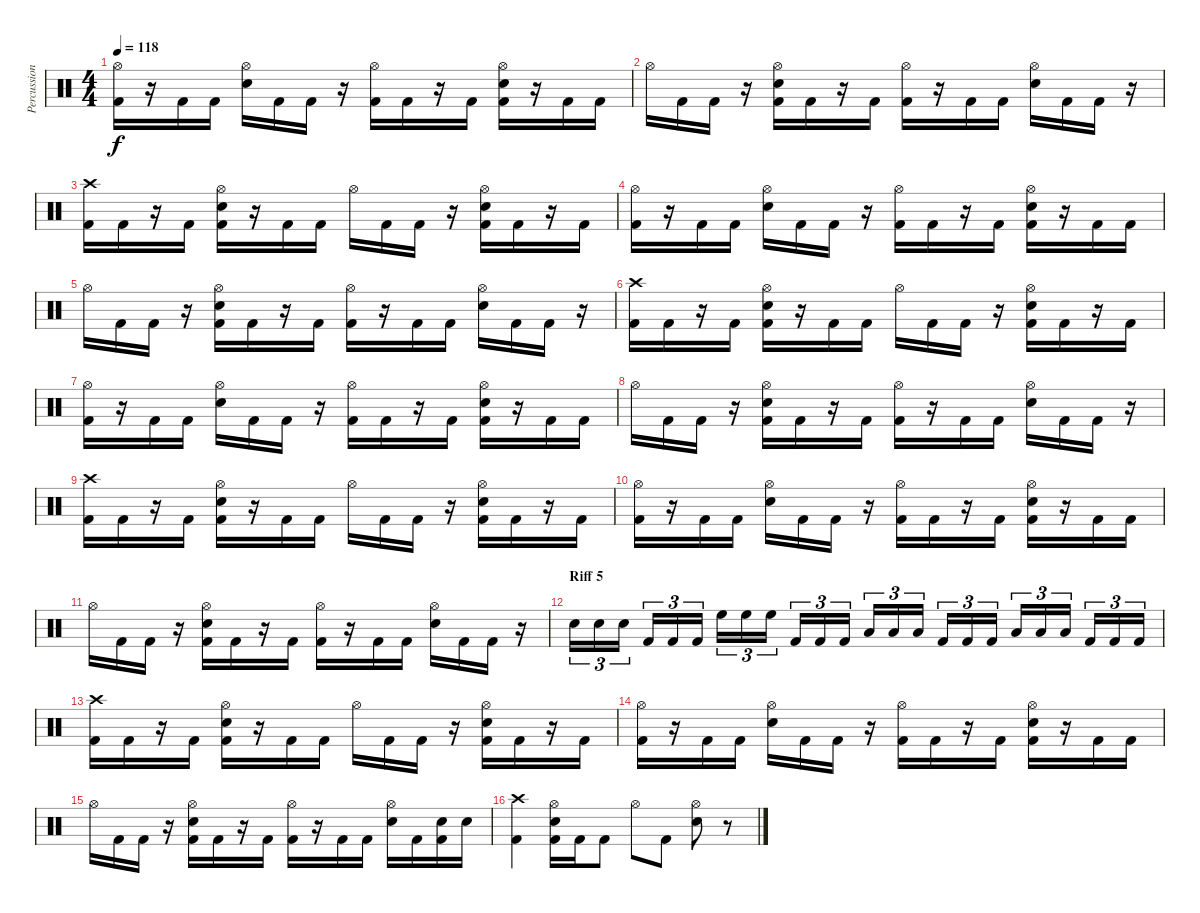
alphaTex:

\track ("Percussion" "Percussion") {instrument percussion}
\staff {score}
\articulation defaults
\ts (4 4)
\tempo 118
\clef neutral
\ks c
("Hi-Hat (open)" "Kick (hit) 2").16{dy f} r.16 "Kick (hit) 2".16 "Kick (hit) 2".16 ("Hi-Hat (open)" "Electric Snare (hit)").16 "Kick (hit) 2".16 "Kick (hit) 2".16 r.16 ("Hi-Hat (open)" "Kick (hit) 2").16 "Kick (hit) 2".16 r.16 "Kick (hit) 2".16 ("Hi-Hat (open)" "Electric Snare (hit)" "Kick (hit) 2").16 r.16 "Kick (hit) 2".16 "Kick (hit) 2".16 |
"Hi-Hat (open)".16 "Kick (hit) 2".16 "Kick (hit) 2".16 r.16 ("Hi-Hat (open)" "Electric Snare (hit)" "Kick (hit) 2").16 "Kick (hit) 2".16 r.16 "Kick (hit) 2".16 ("Hi-Hat (open)" "Kick (hit) 2").16 r.16 "Kick (hit) 2".16 "Kick (hit) 2".16 ("Hi-Hat (open)" "Electric Snare (hit)").16 "Kick (hit) 2".16 "Kick (hit) 2".16 r.16 |
("Crash high (hit)" "Kick (hit) 2").16 "Kick (hit) 2".16 r.16 "Kick (hit) 2".16 ("Hi-Hat (open)" "Electric Snare (hit)" "Kick (hit) 2").16 r.16 "Kick (hit) 2".16 "Kick (hit) 2".16 "Hi-Hat (open)".16 "Kick (hit) 2".16 "Kick (hit) 2".16 r.16 ("Hi-Hat (open)" "Electric Snare (hit)" "Kick (hit) 2").16 "Kick (hit) 2".16 r.16 "Kick (hit) 2".16 |
("Hi-Hat (open)" "Kick (hit) 2").16 r.16 "Kick (hit) 2".16 "Kick (hit) 2".16 ("Hi-Hat (open)" "Electric Snare (hit)").16 "Kick (hit) 2".16 "Kick (hit) 2".16 r.16 ("Hi-Hat (open)" "Kick (hit) 2").16 "Kick (hit) 2".16 r.16 "Kick (hit) 2".16 ("Hi-Hat (open)" "Electric Snare (hit)" "Kick (hit) 2").16 r.16 "Kick (hit) 2".16 "Kick (hit) 2".16 |
"Hi-Hat (open)".16 "Kick (hit) 2".16 "Kick (hit) 2".16 r.16 ("Hi-Hat (open)" "Electric Snare (hit)" "Kick (hit) 2").16 "Kick (hit) 2".16 r.16 "Kick (hit) 2".16 ("Hi-Hat (open)" "Kick (hit) 2").16 r.16 "Kick (hit) 2".16 "Kick (hit) 2".16 ("Hi-Hat (open)" "Electric Snare (hit)").16 "Kick (hit) 2".16 "Kick (hit) 2".16 r.16 |
("Crash high (hit)" "Kick (hit) 2").16 "Kick (hit) 2".16 r.16 "Kick (hit) 2".16 ("Hi-Hat (open)" "Electric Snare (hit)" "Kick (hit) 2").16 r.16 "Kick (hit) 2".16 "Kick (hit) 2".16 "Hi-Hat (open)".16 "Kick (hit) 2".16 "Kick (hit) 2".16 r.16 ("Hi-Hat (open)" "Electric Snare (hit)" "Kick (hit) 2").16 "Kick (hit) 2".16 r.16 "Kick (hit) 2".16 |
("Hi-Hat (open)" "Kick (hit) 2").16 r.16 "Kick (hit) 2".16 "Kick (hit) 2".16 ("Hi-Hat (open)" "Electric Snare (hit)").16 "Kick (hit) 2".16 "Kick (hit) 2".16 r.16 ("Hi-Hat (open)" "Kick (hit) 2").16 "Kick (hit) 2".16 r.16 "Kick (hit) 2".16 ("Hi-Hat (open)" "Electric Snare (hit)" "Kick (hit) 2").16 r.16 "Kick (hit) 2".16 "Kick (hit) 2".16 |
"Hi-Hat (open)".16 "Kick (hit) 2".16 "Kick (hit) 2".16 r.16 ("Hi-Hat (open)" "Electric Snare (hit)" "Kick (hit) 2").16 "Kick (hit) 2".16 r.16 "Kick (hit) 2".16 ("Hi-Hat (open)" "Kick (hit) 2").16 r.16 "Kick (hit) 2".16 "Kick (hit) 2".16 ("Hi-Hat (open)" "Electric Snare (hit)").16 "Kick (hit) 2".16 "Kick (hit) 2".16 r.16 |
("Crash high (hit)" "Kick (hit) 2").16 "Kick (hit) 2".16 r.16 "Kick (hit) 2".16 ("Hi-Hat (open)" "Electric Snare (hit)" "Kick (hit) 2").16 r.16 "Kick (hit) 2".16 "Kick (hit) 2".16 "Hi-Hat (open)".16 "Kick (hit) 2".16 "Kick (hit) 2".16 r.16 ("Hi-Hat (open)" "Electric Snare (hit)" "Kick (hit) 2").16 "Kick (hit) 2".16 r.16 "Kick (hit) 2".16 |
("Hi-Hat (open)" "Kick (hit) 2").16 r.16 "Kick (hit) 2".16 "Kick (hit) 2".16 ("Hi-Hat (open)" "Electric Snare (hit)").16 "Kick (hit) 2".16 "Kick (hit) 2".16 r.16 ("Hi-Hat (open)" "Kick (hit) 2").16 "Kick (hit) 2".16 r.16 "Kick (hit) 2".16 ("Hi-Hat (open)" "Electric Snare (hit)" "Kick (hit) 2").16 r.16 "Kick (hit) 2".16 "Kick (hit) 2".16 |
"Hi-Hat (open)".16 "Kick (hit) 2".16 "Kick (hit) 2".16 r.16 ("Hi-Hat (open)" "Electric Snare (hit)" "Kick (hit) 2").16 "Kick (hit) 2".16 r.16 "Kick (hit) 2".16 ("Hi-Hat (open)" "Kick (hit) 2").16 r.16 "Kick (hit) 2".16 "Kick (hit) 2".16 ("Hi-Hat (open)" "Electric Snare (hit)").16 "Kick (hit) 2".16 "Kick (hit) 2".16 r.16 |
\section ("" "Riff 5")
"Electric Snare (hit)".16{tu (3 2)} "Electric Snare (hit)".16{tu (3 2)} "Electric Snare (hit)".16{tu (3 2)} "Kick (hit) 2".16{tu (3 2)} "Kick (hit) 2".16{tu (3 2)} "Kick (hit) 2".16{tu (3 2)} "High Floor Tom (hit)".16{tu (3 2)} "High Floor Tom (hit)".16{tu (3 2)} "High Floor Tom (hit)".16{tu (3 2)} "Kick (hit) 2".16{tu (3 2)} "Kick (hit) 2".16{tu (3 2)} "Kick (hit) 2".16{tu (3 2)} "Low Tom (hit)".16{tu (3 2)} "Low Tom (hit)".16{tu (3 2)} "Low Tom (hit)".16{tu (3 2)} "Kick (hit) 2".16{tu (3 2)} "Kick (hit) 2".16{tu (3 2)} "Kick (hit) 2".16{tu (3 2)} "Low Floor Tom (hit)".16{tu (3 2)} "Low Floor Tom (hit)".16{tu (3 2)} "Low Floor Tom (hit)".16{tu (3 2)} "Kick (hit) 2".16{tu (3 2)} "Kick (hit) 2".16{tu (3 2)} "Kick (hit) 2".16{tu (3 2)} |
("Crash high (hit)" "Kick (hit) 2").16 "Kick (hit) 2".16 r.16 "Kick (hit) 2".16 ("Hi-Hat (open)" "Electric Snare (hit)" "Kick (hit) 2").16 r.16 "Kick (hit) 2".16 "Kick (hit) 2".16 "Hi-Hat (open)".16 "Kick (hit) 2".16 "Kick (hit) 2".16 r.16 ("Hi-Hat (open)" "Electric Snare (hit)" "Kick (hit) 2").16 "Kick (hit) 2".16 r.16 "Kick (hit) 2".16 |
("Hi-Hat (open)" "Kick (hit) 2").16 r.16 "Kick (hit) 2".16 "Kick (hit) 2".16 ("Hi-Hat (open)" "Electric Snare (hit)").16 "Kick (hit) 2".16 "Kick (hit) 2".16 r.16 ("Hi-Hat (open)" "Kick (hit) 2").16 "Kick (hit) 2".16 r.16 "Kick (hit) 2".16 ("Hi-Hat (open)" "Electric Snare (hit)" "Kick (hit) 2").16 r.16 "Kick (hit) 2".16 "Kick (hit) 2".16 |
"Hi-Hat (open)".16 "Kick (hit) 2".16 "Kick (hit) 2".16 r.16 ("Hi-Hat (open)" "Electric Snare (hit)" "Kick (hit) 2").16 "Kick (hit) 2".16 r.16 "Kick (hit) 2".16 ("Hi-Hat (open)" "Kick (hit) 2").16 r.16 "Kick (hit) 2".16 "Kick (hit) 2".16 ("Hi-Hat (open)" "Electric Snare (hit)").16 "Kick (hit) 2".16 ("Electric Snare (hit)" "Kick (hit) 2").16 "Electric Snare (hit)".16 |
("Crash high (hit)" "Kick (hit) 2").4 ("Hi-Hat (open)" "Electric Snare (hit)" "Kick (hit) 2").16 "Kick (hit) 2".16 "Kick (hit) 2".8 "Hi-Hat (open)".8 "Kick (hit) 2".8 ("Hi-Hat (open)" "Electric Snare (hit)").8 r.8
